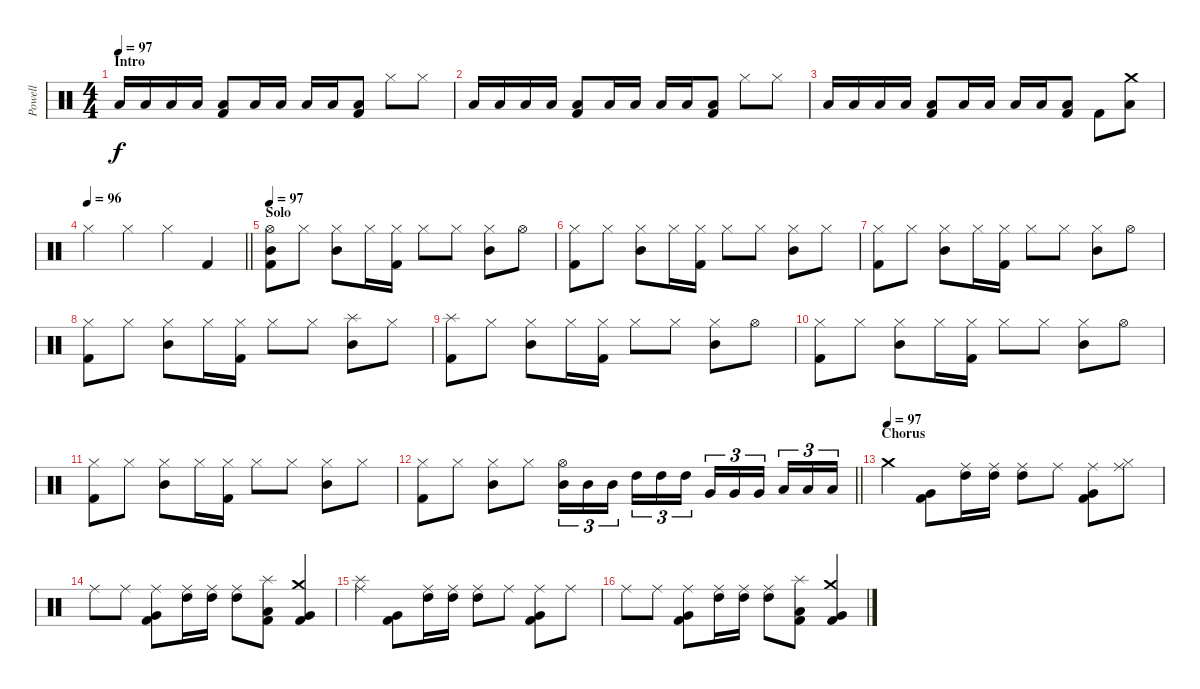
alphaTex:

\track ("Powell" "Powell") {instrument percussion}
\staff {score}
\articulation defaults
\ts (4 4)
\section ("" "Intro")
\tempo 97
\clef neutral
\ks c "Low Tom (hit)".16{dy f} "Low Tom (hit)".16 "Low Tom (hit)".16 "Low Tom (hit)".16
("Low Tom (hit)" "Kick (hit) 2").8 "Low Tom (hit)".16 "Low Tom (hit)".16 "Low Tom (hit)".16 "Low Tom (hit)".16 ("Low Tom (hit)" "Kick (hit) 2").8 "Hi-Hat (closed)".8 "Hi-Hat (closed)".8 |
"Low Tom (hit)".16 "Low Tom (hit)".16 "Low Tom (hit)".16 "Low Tom (hit)".16 ("Low Tom (hit)" "Kick (hit) 2").8 "Low Tom (hit)".16 "Low Tom (hit)".16 "Low Tom (hit)".16 "Low Tom (hit)".16 ("Low Tom (hit)" "Kick (hit) 2").8 "Hi-Hat (closed)".8 "Hi-Hat (closed)".8 |
"Low Tom (hit)".16 "Low Tom (hit)".16 "Low Tom (hit)".16 "Low Tom (hit)".16 ("Low Tom (hit)" "Kick (hit) 2").8 "Low Tom (hit)".16 "Low Tom (hit)".16 "Low Tom (hit)".16 "Low Tom (hit)".16 ("Low Tom (hit)" "Kick (hit) 2").8 "Kick (hit) 2".8 ("Crash medium (hit)" "Low Tom (hit)").8 |
\tempo 96
\barLineRight lightlight "Hi-Hat (closed)".4 "Hi-Hat (closed)".4 "Hi-Hat (closed)".4 "Kick (hit) 2".4
|
\section ("" "Solo")
\tempo 97
("Hi-Hat (open)" "Mid Tom (hit)" "Kick (hit) 2").8 "Hi-Hat (closed)".8 ("Hi-Hat (closed)" "Mid Tom (hit)").8 "Hi-Hat (closed)".16 ("Hi-Hat (closed)" "Kick (hit) 2").16 "Hi-Hat (closed)".8 "Hi-Hat (closed)".8 ("Hi-Hat (closed)" "Mid Tom (hit)").8 "Hi-Hat (open)".8 |
("Hi-Hat (closed)" "Kick (hit) 2").8 "Hi-Hat (closed)".8 ("Hi-Hat (closed)" "Mid Tom (hit)").8 "Hi-Hat (closed)".16 ("Hi-Hat (closed)" "Kick (hit) 2").16 "Hi-Hat (closed)".8 "Hi-Hat (closed)".8 ("Hi-Hat (closed)" "Mid Tom (hit)").8 "Hi-Hat (closed)".8 |
("Hi-Hat (closed)" "Kick (hit) 2").8 "Hi-Hat (closed)".8 ("Hi-Hat (closed)" "Mid Tom (hit)").8 "Hi-Hat (closed)".16 ("Hi-Hat (closed)" "Kick (hit) 2").16 "Hi-Hat (closed)".8 "Hi-Hat (closed)".8 ("Hi-Hat (closed)" "Mid Tom (hit)").8 "Hi-Hat (open)".8 |
("Hi-Hat (closed)" "Kick (hit) 2").8 "Hi-Hat (closed)".8 ("Hi-Hat (closed)" "Mid Tom (hit)").8 "Hi-Hat (closed)".16 ("Hi-Hat (closed)" "Kick (hit) 2").16 "Hi-Hat (closed)".8 "Hi-Hat (closed)".8 ("Splash (hit)" "Mid Tom (hit)").8 "Hi-Hat (closed)".8 |
("Splash (hit)" "Kick (hit) 2").8 "Hi-Hat (closed)".8 ("Hi-Hat (closed)" "Mid Tom (hit)").8 "Hi-Hat (closed)".16 ("Hi-Hat (closed)" "Kick (hit) 2").16 "Hi-Hat (closed)".8 "Hi-Hat (closed)".8 ("Hi-Hat (closed)" "Mid Tom (hit)").8 "Hi-Hat (open)".8 |
("Hi-Hat (closed)" "Kick (hit) 2").8 "Hi-Hat (closed)".8 ("Hi-Hat (closed)" "Mid Tom (hit)").8 "Hi-Hat (closed)".16 ("Hi-Hat (closed)" "Kick (hit) 2").16 "Hi-Hat (closed)".8 "Hi-Hat (closed)".8 ("Hi-Hat (closed)" "Mid Tom (hit)").8 "Hi-Hat (open)".8 |
("Hi-Hat (closed)" "Kick (hit) 2").8 "Hi-Hat (closed)".8 ("Hi-Hat (closed)" "Mid Tom (hit)").8 "Hi-Hat (closed)".16 ("Hi-Hat (closed)" "Kick (hit) 2").16 "Hi-Hat (closed)".8 "Hi-Hat (closed)".8 ("Hi-Hat (closed)" "Mid Tom (hit)").8 "Hi-Hat (closed)".8 |
\barLineRight lightlight
("Hi-Hat (closed)" "Kick (hit) 2").8 "Hi-Hat (closed)".8 ("Hi-Hat (closed)" "Mid Tom (hit)").8 "Hi-Hat (closed)".8 ("Hi-Hat (open)" "Mid Tom (hit)").16{tu (3 2)} "Mid Tom (hit)".16{tu (3 2)} "Mid Tom (hit)".16{tu (3 2) beam splitsecondary} "High Tom (hit)".16{tu (3 2)} "High Tom (hit)".16{tu (3 2)} "High Tom (hit)".16{tu (3 2)} "Very Low Tom (hit)".16{tu (3 2)} "Very Low Tom (hit)".16{tu (3 2)} "Very Low Tom (hit)".16{tu (3 2) beam splitsecondary} "Low Tom (hit)".16{tu (3 2)} "Low Tom (hit)".16{tu (3 2)} "Low Tom (hit)".16{tu (3 2)} |
\section ("" "Chorus")
\tempo (97)
"Crash medium (hit)".4 ("Very Low Tom (hit)" "Kick (hit) 2").8 ("Ride (middle)" "High Tom (hit)").16 ("Ride (middle)" "High Tom (hit)").16 ("Ride (middle)" "High Tom (hit)").8 "Ride (middle)".8 ("Ride (middle)" "Very Low Tom (hit)" "Kick (hit) 2").8 ("Ride (middle)" "Hi-Hat (closed)").8 |
"Ride (middle)".8 "Ride (middle)".8 ("Ride (middle)" "Very Low Tom (hit)" "Kick (hit) 2").8 ("Ride (middle)" "High Tom (hit)").16 ("Ride (middle)" "High Tom (hit)").16 ("Ride (middle)" "High Tom (hit)").8 ("Splash (hit)" "Low Tom (hit)" "Kick (hit) 2").8 ("Crash medium (hit)" "Very Low Tom (hit)" "Kick (hit) 2").4 |
("Splash (hit)" "Ride (middle)").4 ("Very Low Tom (hit)" "Kick (hit) 2").8 ("Ride (middle)" "High Tom (hit)").16 ("Ride (middle)" "High Tom (hit)").16 ("Ride (middle)" "High Tom (hit)").8 "Ride (middle)".8 ("Ride (middle)" "Very Low Tom (hit)" "Kick (hit) 2").8 "Ride (middle)".8 |
"Ride (middle)".8 "Ride (middle)".8 ("Ride (middle)" "Very Low Tom (hit)" "Kick (hit) 2").8 ("Ride (middle)" "High Tom (hit)").16 ("Ride (middle)" "High Tom (hit)").16 ("Ride (middle)" "High Tom (hit)").8 ("Splash (hit)" "Low Tom (hit)" "Kick (hit) 2").8 ("Crash medium (hit)" "Very Low Tom (hit)" "Kick (hit) 2").4
